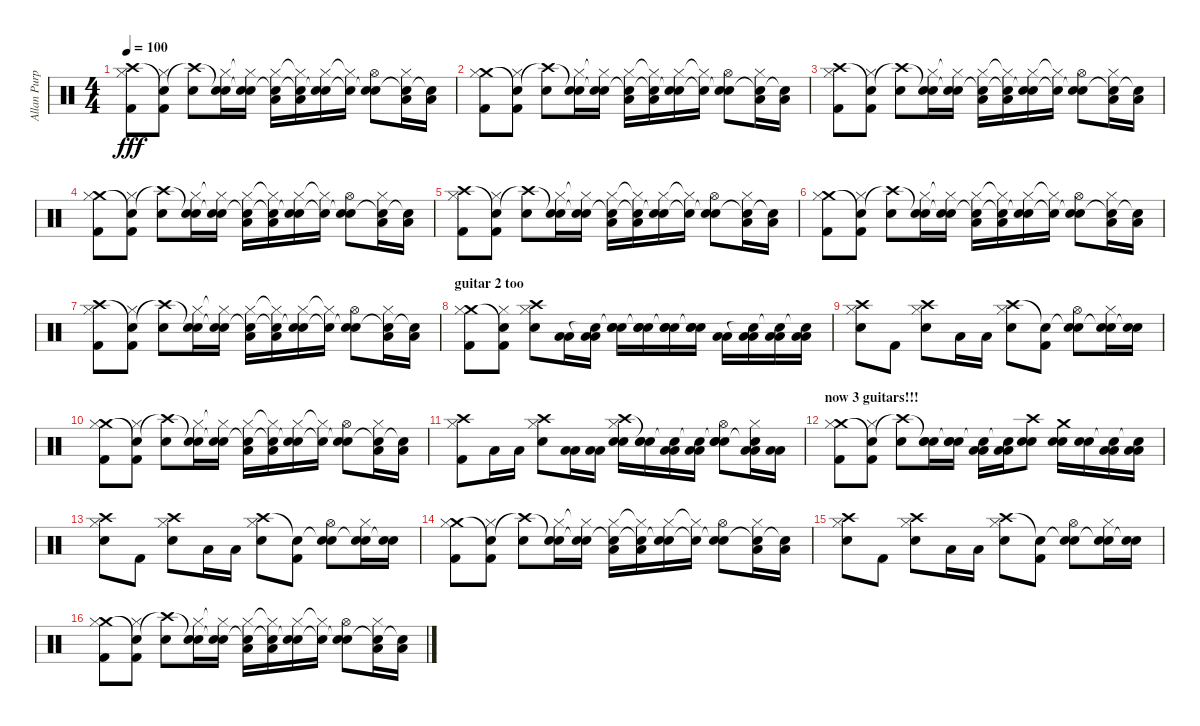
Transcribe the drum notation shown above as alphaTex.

\track ("Allan Purple" "Allan Purp") {instrument percussion}
\staff {score}
\articulation defaults
\ts (4 4)
\tempo 100
\clef neutral
\ks c
("Crash high (hit)" "Hi-Hat (closed)" "Kick (hit) 2").8{dy fff} ("Snare (hit)"{t} "Hi-Hat (closed)" "Kick (hit) 2").8 ("Crash high (hit)"{t} "Snare (hit) 2").8 ("Snare (hit)"{t} "Hi-Hat (closed)" "Electric Snare (hit)").16 ("Snare (hit)"{t} "Hi-Hat (closed)"{t} "Electric Snare (hit)").16 ("Snare (hit)"{t} "Hi-Hat (closed)" "Low Tom (hit)").16 ("Snare (hit)"{t} "Hi-Hat (closed)"{t} "Low Tom (hit)").16 ("Snare (hit)"{t} "Hi-Hat (closed)" "Electric Snare (hit)").16 ("Snare (hit)"{t} "Hi-Hat (closed)"{t}).16 ("Snare (hit)"{t} "Hi-Hat (open)" "Electric Snare (hit)").8 ("Snare (hit)"{t} "Hi-Hat (closed)" "Low Tom (hit)").16 ("Snare (hit)"{t} "Low Tom (hit)").16 |
("Crash medium (hit)" "Hi-Hat (closed)" "Kick (hit) 2").8 ("Snare (hit)"{t} "Hi-Hat (closed)" "Kick (hit) 2").8 ("Crash high (hit)"{t} "Snare (hit) 2").8 ("Snare (hit)"{t} "Hi-Hat (closed)" "Electric Snare (hit)").16 ("Snare (hit)"{t} "Hi-Hat (closed)"{t} "Electric Snare (hit)").16 ("Snare (hit)"{t} "Hi-Hat (closed)" "Low Tom (hit)").16 ("Snare (hit)"{t} "Hi-Hat (closed)"{t} "Low Tom (hit)").16 ("Snare (hit)"{t} "Hi-Hat (closed)" "Electric Snare (hit)").16 ("Snare (hit)"{t} "Hi-Hat (closed)"{t}).16 ("Snare (hit)"{t} "Hi-Hat (open)" "Electric Snare (hit)").8 ("Snare (hit)"{t} "Hi-Hat (closed)" "Low Tom (hit)").16 ("Snare (hit)"{t} "Low Tom (hit)").16 |
("Crash high (hit)" "Hi-Hat (closed)" "Kick (hit) 2").8 ("Snare (hit)"{t} "Hi-Hat (closed)" "Kick (hit) 2").8 ("Crash high (hit)"{t} "Snare (hit) 2").8 ("Snare (hit)"{t} "Hi-Hat (closed)" "Electric Snare (hit)").16 ("Snare (hit)"{t} "Hi-Hat (closed)"{t} "Electric Snare (hit)").16 ("Snare (hit)"{t} "Hi-Hat (closed)" "Low Tom (hit)").16 ("Snare (hit)"{t} "Hi-Hat (closed)"{t} "Low Tom (hit)").16 ("Snare (hit)"{t} "Hi-Hat (closed)" "Electric Snare (hit)").16 ("Snare (hit)"{t} "Hi-Hat (closed)"{t}).16 ("Snare (hit)"{t} "Hi-Hat (open)" "Electric Snare (hit)").8 ("Snare (hit)"{t} "Hi-Hat (closed)" "Low Tom (hit)").16 ("Snare (hit)"{t} "Low Tom (hit)").16 |
("Crash medium (hit)" "Hi-Hat (closed)" "Kick (hit) 2").8 ("Snare (hit)"{t} "Hi-Hat (closed)" "Kick (hit) 2").8 ("Crash high (hit)"{t} "Snare (hit) 2").8 ("Snare (hit)"{t} "Hi-Hat (closed)" "Electric Snare (hit)").16 ("Snare (hit)"{t} "Hi-Hat (closed)"{t} "Electric Snare (hit)").16 ("Snare (hit)"{t} "Hi-Hat (closed)" "Low Tom (hit)").16 ("Snare (hit)"{t} "Hi-Hat (closed)"{t} "Low Tom (hit)").16 ("Snare (hit)"{t} "Hi-Hat (closed)" "Electric Snare (hit)").16 ("Snare (hit)"{t} "Hi-Hat (closed)"{t}).16 ("Snare (hit)"{t} "Hi-Hat (open)" "Electric Snare (hit)").8 ("Snare (hit)"{t} "Hi-Hat (closed)" "Low Tom (hit)").16 ("Snare (hit)"{t} "Low Tom (hit)").16 |
("Crash high (hit)" "Hi-Hat (closed)" "Kick (hit) 2").8 ("Snare (hit)"{t} "Hi-Hat (closed)" "Kick (hit) 2").8 ("Crash high (hit)"{t} "Snare (hit) 2").8 ("Snare (hit)"{t} "Hi-Hat (closed)" "Electric Snare (hit)").16 ("Snare (hit)"{t} "Hi-Hat (closed)"{t} "Electric Snare (hit)").16 ("Snare (hit)"{t} "Hi-Hat (closed)" "Low Tom (hit)").16 ("Snare (hit)"{t} "Hi-Hat (closed)"{t} "Low Tom (hit)").16 ("Snare (hit)"{t} "Hi-Hat (closed)" "Electric Snare (hit)").16 ("Snare (hit)"{t} "Hi-Hat (closed)"{t}).16 ("Snare (hit)"{t} "Hi-Hat (open)" "Electric Snare (hit)").8 ("Snare (hit)"{t} "Hi-Hat (closed)" "Low Tom (hit)").16 ("Snare (hit)"{t} "Low Tom (hit)").16 |
("Crash medium (hit)" "Hi-Hat (closed)" "Kick (hit) 2").8 ("Snare (hit)"{t} "Hi-Hat (closed)" "Kick (hit) 2").8 ("Crash high (hit)"{t} "Snare (hit) 2").8 ("Snare (hit)"{t} "Hi-Hat (closed)" "Electric Snare (hit)").16 ("Snare (hit)"{t} "Hi-Hat (closed)"{t} "Electric Snare (hit)").16 ("Snare (hit)"{t} "Hi-Hat (closed)" "Low Tom (hit)").16 ("Snare (hit)"{t} "Hi-Hat (closed)"{t} "Low Tom (hit)").16 ("Snare (hit)"{t} "Hi-Hat (closed)" "Electric Snare (hit)").16 ("Snare (hit)"{t} "Hi-Hat (closed)"{t}).16 ("Snare (hit)"{t} "Hi-Hat (open)" "Electric Snare (hit)").8 ("Snare (hit)"{t} "Hi-Hat (closed)" "Low Tom (hit)").16 ("Snare (hit)"{t} "Low Tom (hit)").16 |
("Crash high (hit)" "Hi-Hat (closed)" "Kick (hit) 2").8 ("Snare (hit)"{t} "Hi-Hat (closed)" "Kick (hit) 2").8 ("Crash high (hit)"{t} "Snare (hit) 2").8 ("Snare (hit)"{t} "Hi-Hat (closed)" "Electric Snare (hit)").16 ("Snare (hit)"{t} "Hi-Hat (closed)"{t} "Electric Snare (hit)").16 ("Snare (hit)"{t} "Hi-Hat (closed)" "Low Tom (hit)").16 ("Snare (hit)"{t} "Hi-Hat (closed)"{t} "Low Tom (hit)").16 ("Snare (hit)"{t} "Hi-Hat (closed)" "Electric Snare (hit)").16 ("Snare (hit)"{t} "Hi-Hat (closed)"{t}).16 ("Snare (hit)"{t} "Hi-Hat (open)" "Electric Snare (hit)").8 ("Snare (hit)"{t} "Hi-Hat (closed)" "Low Tom (hit)").16 ("Snare (hit)"{t} "Low Tom (hit)").16 |
\section ("" "guitar 2 too")
("Crash medium (hit)" "Hi-Hat (closed)" "Kick (hit) 2").8 ("Snare (hit)"{t} "Hi-Hat (closed)" "Kick (hit) 2").8 ("Crash high (hit)" "Hi-Hat (closed)" "Snare (hit) 2").8 ("Low Tom (hit)" "Low Tom (hit)").16 ("Snare (hit)"{t} "Low Tom (hit)" "Low Tom (hit)").16 ("Snare (hit)"{t} "Electric Snare (hit)" "Electric Snare (hit)").16 ("Snare (hit)"{t} "Electric Snare (hit)" "Electric Snare (hit)").16 ("Snare (hit)"{t} "Electric Snare (hit)" "Electric Snare (hit)").16 ("Snare (hit)"{t} "Electric Snare (hit)" "Electric Snare (hit)").16 ("Low Tom (hit)" "Low Tom (hit)").16 ("Snare (hit)"{t} "Low Tom (hit)" "Low Tom (hit)").16 ("Snare (hit)"{t} "Low Tom (hit)" "Low Tom (hit)").16 ("Snare (hit)"{t} "Low Tom (hit)" "Low Tom (hit)").16 |
("Crash high (hit)" "Hi-Hat (closed)" "Snare (hit) 2").8 "Kick (hit) 2".8 ("Crash high (hit)" "Hi-Hat (closed)" "Snare (hit) 2").8 "Low Tom (hit)".16 "Low Tom (hit)".16 ("Crash high (hit)" "Hi-Hat (closed)" "Snare (hit) 2").8 ("Snare (hit)"{t} "Kick (hit) 2").8 ("Snare (hit)"{t} "Hi-Hat (open)" "Snare (hit) 2").8 ("Snare (hit)"{t} "Hi-Hat (closed)" "Electric Snare (hit)").16 ("Snare (hit)"{t} "Electric Snare (hit)").16 |
("Crash medium (hit)" "Hi-Hat (closed)" "Kick (hit) 2").8 ("Snare (hit)"{t} "Hi-Hat (closed)" "Kick (hit) 2").8 ("Crash high (hit)"{t} "Snare (hit) 2").8 ("Snare (hit)"{t} "Hi-Hat (closed)" "Electric Snare (hit)").16 ("Snare (hit)"{t} "Hi-Hat (closed)"{t} "Electric Snare (hit)").16 ("Snare (hit)"{t} "Hi-Hat (closed)" "Low Tom (hit)").16 ("Snare (hit)"{t} "Hi-Hat (closed)"{t} "Low Tom (hit)").16 ("Snare (hit)"{t} "Hi-Hat (closed)" "Electric Snare (hit)").16 ("Snare (hit)"{t} "Hi-Hat (closed)"{t}).16 ("Snare (hit)"{t} "Hi-Hat (open)" "Electric Snare (hit)").8 ("Snare (hit)"{t} "Hi-Hat (closed)" "Low Tom (hit)").16 ("Snare (hit)"{t} "Low Tom (hit)").16 |
("Crash high (hit)" "Hi-Hat (closed)" "Kick (hit) 2").8 "Low Tom (hit)".16 "Low Tom (hit)".16 ("Crash high (hit)" "Hi-Hat (closed)" "Snare (hit) 2").8 ("Low Tom (hit)" "Low Tom (hit)").16 ("Low Tom (hit)" "Low Tom (hit)").16 ("Crash high (hit)" "Hi-Hat (closed)" "Electric Snare (hit)" "Electric Snare (hit)").16 ("Snare (hit)"{t} "Electric Snare (hit)" "Electric Snare (hit)").16 ("Snare (hit)"{t} "Low Tom (hit)" "Low Tom (hit)").16 ("Snare (hit)"{t} "Low Tom (hit)" "Low Tom (hit)").16 ("Snare (hit)"{t} "Hi-Hat (open)" "Snare (hit) 2" "Snare (hit) 2").8 ("Snare (hit)"{t} "Hi-Hat (closed)" "Low Tom (hit)" "Low Tom (hit)").16 ("Low Tom (hit)" "Low Tom (hit)").16 |
\section ("" "now 3 guitars!!!")
("Crash medium (hit)" "Hi-Hat (closed)" "Kick (hit) 2").8 ("Snare (hit)"{t} "Hi-Hat (closed)" "Kick (hit) 2").8 ("Crash high (hit)"{t} "Snare (hit) 2").8 ("Snare (hit)"{t} "Electric Snare (hit)" "Electric Snare (hit)").16 ("Snare (hit)"{t} "Electric Snare (hit)" "Electric Snare (hit)").16 ("Snare (hit)"{t} "Low Tom (hit)" "Low Tom (hit)").16 ("Snare (hit)"{t} "Low Tom (hit)" "Low Tom (hit)").16 ("Crash high (hit)" "Snare (hit) 2" "Snare (hit) 2").8 ("Crash medium (hit)" "Electric Snare (hit)" "Electric Snare (hit)").16 ("Electric Snare (hit)" "Electric Snare (hit)").16 ("Snare (hit)"{t} "Low Tom (hit)" "Low Tom (hit)").16 ("Snare (hit)"{t} "Low Tom (hit)" "Low Tom (hit)").16 |
("Crash high (hit)" "Hi-Hat (closed)" "Snare (hit) 2").8 "Kick (hit) 2".8 ("Crash high (hit)" "Hi-Hat (closed)" "Snare (hit) 2").8 "Low Tom (hit)".16 "Low Tom (hit)".16 ("Crash high (hit)" "Hi-Hat (closed)" "Snare (hit) 2").8 ("Snare (hit)"{t} "Kick (hit) 2").8 ("Snare (hit)"{t} "Hi-Hat (open)" "Snare (hit) 2").8 ("Snare (hit)"{t} "Hi-Hat (closed)" "Electric Snare (hit)").16 ("Snare (hit)"{t} "Electric Snare (hit)").16 |
("Crash medium (hit)" "Hi-Hat (closed)" "Kick (hit) 2").8 ("Snare (hit)"{t} "Hi-Hat (closed)" "Kick (hit) 2").8 ("Crash high (hit)"{t} "Snare (hit) 2").8 ("Snare (hit)"{t} "Hi-Hat (closed)" "Electric Snare (hit)").16 ("Snare (hit)"{t} "Hi-Hat (closed)"{t} "Electric Snare (hit)").16 ("Snare (hit)"{t} "Hi-Hat (closed)" "Low Tom (hit)").16 ("Snare (hit)"{t} "Hi-Hat (closed)"{t} "Low Tom (hit)").16 ("Snare (hit)"{t} "Hi-Hat (closed)" "Electric Snare (hit)").16 ("Snare (hit)"{t} "Hi-Hat (closed)"{t}).16 ("Snare (hit)"{t} "Hi-Hat (open)" "Electric Snare (hit)").8 ("Snare (hit)"{t} "Hi-Hat (closed)" "Low Tom (hit)").16 ("Snare (hit)"{t} "Low Tom (hit)").16 |
("Crash high (hit)" "Hi-Hat (closed)" "Snare (hit) 2").8 "Kick (hit) 2".8 ("Crash high (hit)" "Hi-Hat (closed)" "Snare (hit) 2").8 "Low Tom (hit)".16 "Low Tom (hit)".16 ("Crash high (hit)" "Hi-Hat (closed)" "Snare (hit) 2").8 ("Snare (hit)"{t} "Kick (hit) 2").8 ("Snare (hit)"{t} "Hi-Hat (open)" "Snare (hit) 2").8 ("Snare (hit)"{t} "Hi-Hat (closed)" "Electric Snare (hit)").16 ("Snare (hit)"{t} "Electric Snare (hit)").16 |
("Crash medium (hit)" "Hi-Hat (closed)" "Kick (hit) 2").8 ("Snare (hit)"{t} "Hi-Hat (closed)" "Kick (hit) 2").8 ("Crash high (hit)"{t} "Snare (hit) 2").8 ("Snare (hit)"{t} "Hi-Hat (closed)" "Electric Snare (hit)").16 ("Snare (hit)"{t} "Hi-Hat (closed)"{t} "Electric Snare (hit)").16 ("Snare (hit)"{t} "Hi-Hat (closed)" "Low Tom (hit)").16 ("Snare (hit)"{t} "Hi-Hat (closed)"{t} "Low Tom (hit)").16 ("Snare (hit)"{t} "Hi-Hat (closed)" "Electric Snare (hit)").16 ("Snare (hit)"{t} "Hi-Hat (closed)"{t}).16 ("Snare (hit)"{t} "Hi-Hat (open)" "Electric Snare (hit)").8 ("Snare (hit)"{t} "Hi-Hat (closed)" "Low Tom (hit)").16 ("Snare (hit)"{t} "Low Tom (hit)").16
